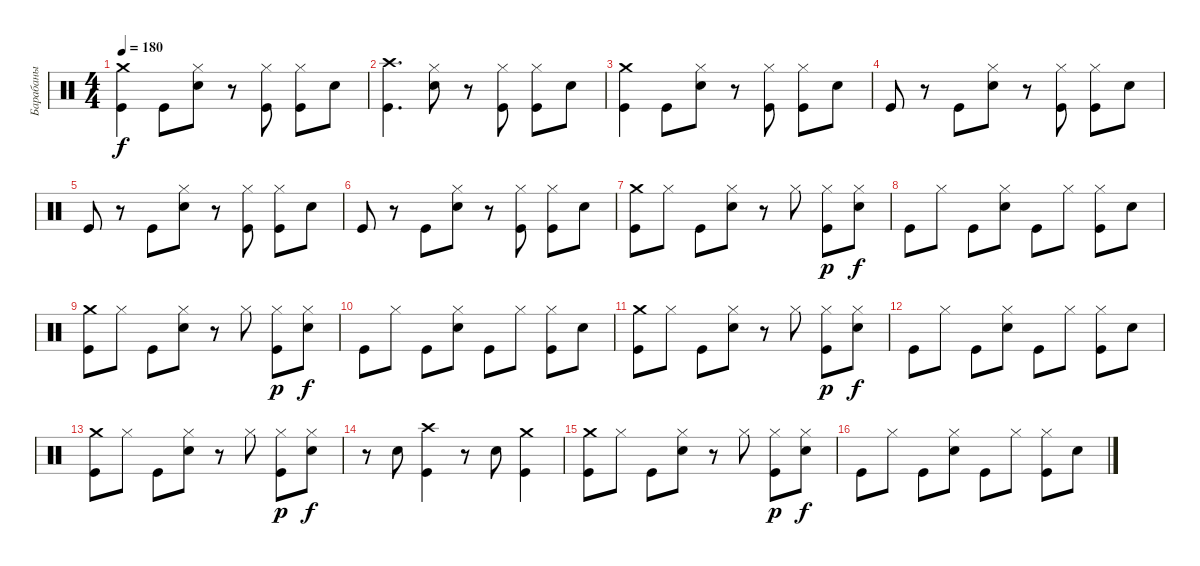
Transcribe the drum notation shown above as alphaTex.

\track ("Барабаны" "Барабаны") {instrument percussion}
\staff {score}
\articulation defaults
\ts (4 4)
\tempo 180
\clef neutral
\ks c
("Kick (hit)" "Crash medium (hit)").4{dy f} "Kick (hit)".8 ("Hi-Hat (closed)" "Electric Snare (hit)").8 r.8 ("Kick (hit)" "Hi-Hat (closed)").8 ("Hi-Hat (closed)" "Kick (hit)").8 "Electric Snare (hit)".8 |
("Kick (hit)" "Crash high (hit)").4{d} ("Hi-Hat (closed)" "Electric Snare (hit)").8 r.8 ("Hi-Hat (closed)" "Kick (hit)").8 ("Hi-Hat (closed)" "Kick (hit)").8 "Electric Snare (hit)".8 |
("Crash medium (hit)" "Kick (hit)").4 "Kick (hit)".8 ("Hi-Hat (closed)" "Electric Snare (hit)").8 r.8 ("Kick (hit)" "Hi-Hat (closed)").8 ("Hi-Hat (closed)" "Kick (hit)").8 "Electric Snare (hit)".8 |
"Kick (hit)".8 r.8 "Kick (hit)".8 ("Hi-Hat (closed)" "Electric Snare (hit)").8 r.8 ("Kick (hit)" "Hi-Hat (closed)").8 ("Kick (hit)" "Hi-Hat (closed)").8 "Electric Snare (hit)".8 |
"Kick (hit)".8 r.8 "Kick (hit)".8 ("Hi-Hat (closed)" "Electric Snare (hit)").8 r.8 ("Kick (hit)" "Hi-Hat (closed)").8 ("Kick (hit)" "Hi-Hat (closed)").8 "Electric Snare (hit)".8 |
"Kick (hit)".8 r.8 "Kick (hit)".8 ("Electric Snare (hit)" "Hi-Hat (closed)").8 r.8 ("Hi-Hat (closed)" "Kick (hit)").8 ("Kick (hit)" "Hi-Hat (closed)").8 "Electric Snare (hit)".8 |
("Crash medium (hit)" "Kick (hit)").8 "Hi-Hat (closed)".8 "Kick (hit)".8 ("Electric Snare (hit)" "Hi-Hat (closed)").8 r.8 "Hi-Hat (closed)".8 ("Kick (hit)" "Hi-Hat (closed)").8{dy p} ("Hi-Hat (closed)" "Electric Snare (hit)").8{dy f} |
"Kick (hit)".8 "Hi-Hat (closed)".8 "Kick (hit)".8 ("Electric Snare (hit)" "Hi-Hat (closed)").8 "Kick (hit)".8 "Hi-Hat (closed)".8 ("Kick (hit)" "Hi-Hat (closed)").8 "Electric Snare (hit)".8 |
("Crash medium (hit)" "Kick (hit)").8 "Hi-Hat (closed)".8 "Kick (hit)".8 ("Electric Snare (hit)" "Hi-Hat (closed)").8 r.8 "Hi-Hat (closed)".8 ("Kick (hit)" "Hi-Hat (closed)").8{dy p} ("Electric Snare (hit)" "Hi-Hat (closed)").8{dy f} |
"Kick (hit)".8 "Hi-Hat (closed)".8 "Kick (hit)".8 ("Electric Snare (hit)" "Hi-Hat (closed)").8 "Kick (hit)".8 "Hi-Hat (closed)".8 ("Kick (hit)" "Hi-Hat (closed)").8 "Electric Snare (hit)".8 |
("Kick (hit)" "Crash medium (hit)").8 "Hi-Hat (closed)".8 "Kick (hit)".8 ("Electric Snare (hit)" "Hi-Hat (closed)").8 r.8 "Hi-Hat (closed)".8 ("Kick (hit)" "Hi-Hat (closed)").8{dy p} ("Hi-Hat (closed)" "Electric Snare (hit)").8{dy f} |
"Kick (hit)".8 "Hi-Hat (closed)".8 "Kick (hit)".8 ("Hi-Hat (closed)" "Electric Snare (hit)").8 "Kick (hit)".8 "Hi-Hat (closed)".8 ("Hi-Hat (closed)" "Kick (hit)").8 "Electric Snare (hit)".8 |
("Kick (hit)" "Crash medium (hit)").8 "Hi-Hat (closed)".8 "Kick (hit)".8 ("Electric Snare (hit)" "Hi-Hat (closed)").8 r.8 "Hi-Hat (closed)".8 ("Kick (hit)" "Hi-Hat (closed)").8{dy p} ("Electric Snare (hit)" "Hi-Hat (closed)").8{dy f} |
r.8 "Electric Snare (hit)".8 ("Kick (hit)" "Crash high (hit)").4 r.8 "Electric Snare (hit)".8 ("Crash medium (hit)" "Kick (hit)").4 |
("Kick (hit)" "Crash medium (hit)").8 "Hi-Hat (closed)".8 "Kick (hit)".8 ("Electric Snare (hit)" "Hi-Hat (closed)").8 r.8 "Hi-Hat (closed)".8 ("Kick (hit)" "Hi-Hat (closed)").8{dy p} ("Hi-Hat (closed)" "Electric Snare (hit)").8{dy f} |
"Kick (hit)".8 "Hi-Hat (closed)".8 "Kick (hit)".8 ("Hi-Hat (closed)" "Electric Snare (hit)").8 "Kick (hit)".8 "Hi-Hat (closed)".8 ("Hi-Hat (closed)" "Kick (hit)").8 "Electric Snare (hit)".8
